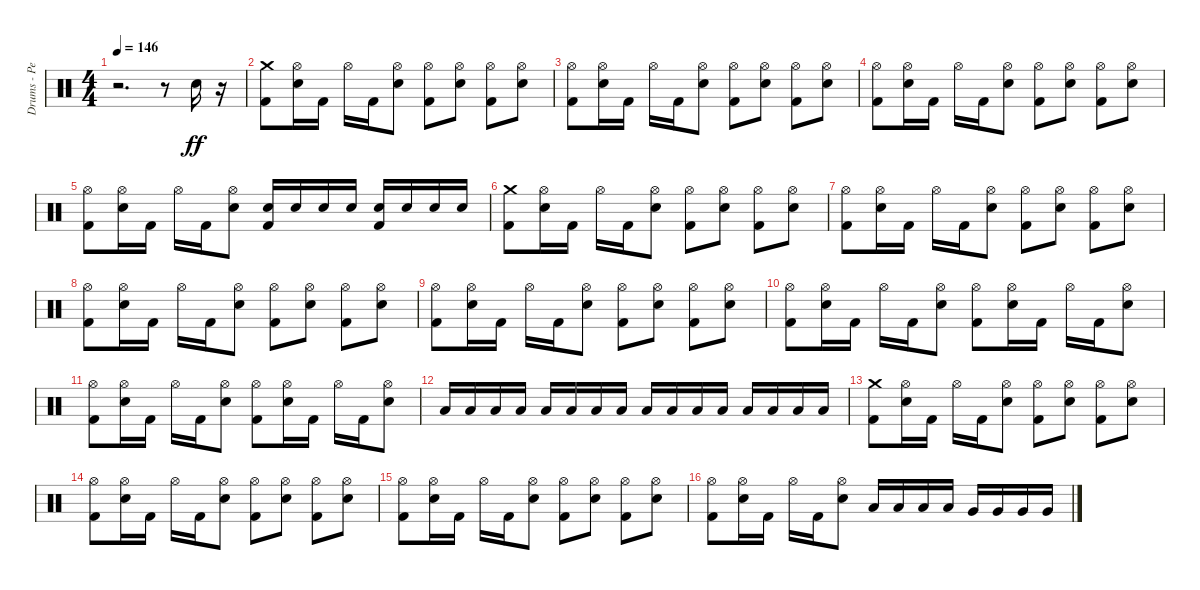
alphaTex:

\track ("Drums - Pete Finestone" "Drums - Pe") {instrument percussion}
\staff {score}
\articulation defaults
\ts (4 4)
\tempo 146
\clef neutral
\ks c
r.2{d dy ff} r.8 "Electric Snare (hit)".16 r.16 |
("Crash medium (hit)" "Kick (hit) 2").8 ("Electric Snare (hit)" "Hi-Hat (open)").16 "Kick (hit) 2".16 "Hi-Hat (open)".16 "Kick (hit) 2".16 ("Electric Snare (hit)" "Hi-Hat (open)").8 ("Kick (hit) 2" "Hi-Hat (open)").8 ("Electric Snare (hit)" "Hi-Hat (open)").8 ("Kick (hit) 2" "Hi-Hat (open)").8 ("Electric Snare (hit)" "Hi-Hat (open)").8 |
("Kick (hit) 2" "Hi-Hat (open)").8 ("Electric Snare (hit)" "Hi-Hat (open)").16 "Kick (hit) 2".16 "Hi-Hat (open)".16 "Kick (hit) 2".16 ("Electric Snare (hit)" "Hi-Hat (open)").8 ("Kick (hit) 2" "Hi-Hat (open)").8 ("Electric Snare (hit)" "Hi-Hat (open)").8 ("Kick (hit) 2" "Hi-Hat (open)").8 ("Electric Snare (hit)" "Hi-Hat (open)").8 |
("Hi-Hat (open)" "Kick (hit) 2").8 ("Hi-Hat (open)" "Electric Snare (hit)").16 "Kick (hit) 2".16 "Hi-Hat (open)".16 "Kick (hit) 2".16 ("Hi-Hat (open)" "Electric Snare (hit)").8 ("Hi-Hat (open)" "Kick (hit) 2").8 ("Hi-Hat (open)" "Electric Snare (hit)").8 ("Hi-Hat (open)" "Kick (hit) 2").8 ("Hi-Hat (open)" "Electric Snare (hit)").8 |
("Kick (hit) 2" "Hi-Hat (open)").8 ("Electric Snare (hit)" "Hi-Hat (open)").16 "Kick (hit) 2".16 "Hi-Hat (open)".16 "Kick (hit) 2".16 ("Electric Snare (hit)" "Hi-Hat (open)").8 ("Kick (hit) 2" "Electric Snare (hit)").16 "Electric Snare (hit)".16 "Electric Snare (hit)".16 "Electric Snare (hit)".16 ("Kick (hit) 2" "Electric Snare (hit)").16 "Electric Snare (hit)".16 "Electric Snare (hit)".16 "Electric Snare (hit)".16 |
("Crash medium (hit)" "Kick (hit) 2").8 ("Electric Snare (hit)" "Hi-Hat (open)").16 "Kick (hit) 2".16 "Hi-Hat (open)".16 "Kick (hit) 2".16 ("Electric Snare (hit)" "Hi-Hat (open)").8 ("Kick (hit) 2" "Hi-Hat (open)").8 ("Electric Snare (hit)" "Hi-Hat (open)").8 ("Kick (hit) 2" "Hi-Hat (open)").8 ("Electric Snare (hit)" "Hi-Hat (open)").8 |
("Kick (hit) 2" "Hi-Hat (open)").8 ("Electric Snare (hit)" "Hi-Hat (open)").16 "Kick (hit) 2".16 "Hi-Hat (open)".16 "Kick (hit) 2".16 ("Electric Snare (hit)" "Hi-Hat (open)").8 ("Kick (hit) 2" "Hi-Hat (open)").8 ("Electric Snare (hit)" "Hi-Hat (open)").8 ("Kick (hit) 2" "Hi-Hat (open)").8 ("Electric Snare (hit)" "Hi-Hat (open)").8 |
("Hi-Hat (open)" "Kick (hit) 2").8 ("Hi-Hat (open)" "Electric Snare (hit)").16 "Kick (hit) 2".16 "Hi-Hat (open)".16 "Kick (hit) 2".16 ("Hi-Hat (open)" "Electric Snare (hit)").8 ("Hi-Hat (open)" "Kick (hit) 2").8 ("Hi-Hat (open)" "Electric Snare (hit)").8 ("Hi-Hat (open)" "Kick (hit) 2").8 ("Hi-Hat (open)" "Electric Snare (hit)").8 |
("Kick (hit) 2" "Hi-Hat (open)").8 ("Electric Snare (hit)" "Hi-Hat (open)").16 "Kick (hit) 2".16 "Hi-Hat (open)".16 "Kick (hit) 2".16 ("Electric Snare (hit)" "Hi-Hat (open)").8 ("Kick (hit) 2" "Hi-Hat (open)").8 ("Electric Snare (hit)" "Hi-Hat (open)").8 ("Kick (hit) 2" "Hi-Hat (open)").8 ("Electric Snare (hit)" "Hi-Hat (open)").8 |
("Kick (hit) 2" "Hi-Hat (open)").8 ("Electric Snare (hit)" "Hi-Hat (open)").16 "Kick (hit) 2".16 "Hi-Hat (open)".16 "Kick (hit) 2".16 ("Electric Snare (hit)" "Hi-Hat (open)").8 ("Kick (hit) 2" "Hi-Hat (open)").8 ("Electric Snare (hit)" "Hi-Hat (open)").16 "Kick (hit) 2".16 "Hi-Hat (open)".16 "Kick (hit) 2".16 ("Electric Snare (hit)" "Hi-Hat (open)").8 |
("Kick (hit) 2" "Hi-Hat (open)").8 ("Electric Snare (hit)" "Hi-Hat (open)").16 "Kick (hit) 2".16 "Hi-Hat (open)".16 "Kick (hit) 2".16 ("Electric Snare (hit)" "Hi-Hat (open)").8 ("Kick (hit) 2" "Hi-Hat (open)").8 ("Electric Snare (hit)" "Hi-Hat (open)").16 "Kick (hit) 2".16 "Hi-Hat (open)".16 "Kick (hit) 2".16 ("Electric Snare (hit)" "Hi-Hat (open)").8 |
"Low Tom (hit)".16 "Low Tom (hit)".16 "Low Tom (hit)".16 "Low Tom (hit)".16 "Low Tom (hit)".16 "Low Tom (hit)".16 "Low Tom (hit)".16 "Low Tom (hit)".16 "Low Tom (hit)".16 "Low Tom (hit)".16 "Low Tom (hit)".16 "Low Tom (hit)".16 "Low Tom (hit)".16 "Low Tom (hit)".16 "Low Tom (hit)".16 "Low Tom (hit)".16 |
("Crash medium (hit)" "Kick (hit) 2").8 ("Electric Snare (hit)" "Hi-Hat (open)").16 "Kick (hit) 2".16 "Hi-Hat (open)".16 "Kick (hit) 2".16 ("Electric Snare (hit)" "Hi-Hat (open)").8 ("Kick (hit) 2" "Hi-Hat (open)").8 ("Electric Snare (hit)" "Hi-Hat (open)").8 ("Kick (hit) 2" "Hi-Hat (open)").8 ("Electric Snare (hit)" "Hi-Hat (open)").8 |
("Kick (hit) 2" "Hi-Hat (open)").8 ("Electric Snare (hit)" "Hi-Hat (open)").16 "Kick (hit) 2".16 "Hi-Hat (open)".16 "Kick (hit) 2".16 ("Electric Snare (hit)" "Hi-Hat (open)").8 ("Kick (hit) 2" "Hi-Hat (open)").8 ("Electric Snare (hit)" "Hi-Hat (open)").8 ("Kick (hit) 2" "Hi-Hat (open)").8 ("Electric Snare (hit)" "Hi-Hat (open)").8 |
("Hi-Hat (open)" "Kick (hit) 2").8 ("Hi-Hat (open)" "Electric Snare (hit)").16 "Kick (hit) 2".16 "Hi-Hat (open)".16 "Kick (hit) 2".16 ("Hi-Hat (open)" "Electric Snare (hit)").8 ("Hi-Hat (open)" "Kick (hit) 2").8 ("Hi-Hat (open)" "Electric Snare (hit)").8 ("Hi-Hat (open)" "Kick (hit) 2").8 ("Hi-Hat (open)" "Electric Snare (hit)").8 |
("Kick (hit) 2" "Hi-Hat (open)").8 ("Electric Snare (hit)" "Hi-Hat (open)").16 "Kick (hit) 2".16 "Hi-Hat (open)".16 "Kick (hit) 2".16 ("Electric Snare (hit)" "Hi-Hat (open)").8 "Low Tom (hit)".16 "Low Tom (hit)".16 "Low Tom (hit)".16 "Low Tom (hit)".16 "Very Low Tom (hit)".16 "Very Low Tom (hit)".16 "Very Low Tom (hit)".16 "Very Low Tom (hit)".16
